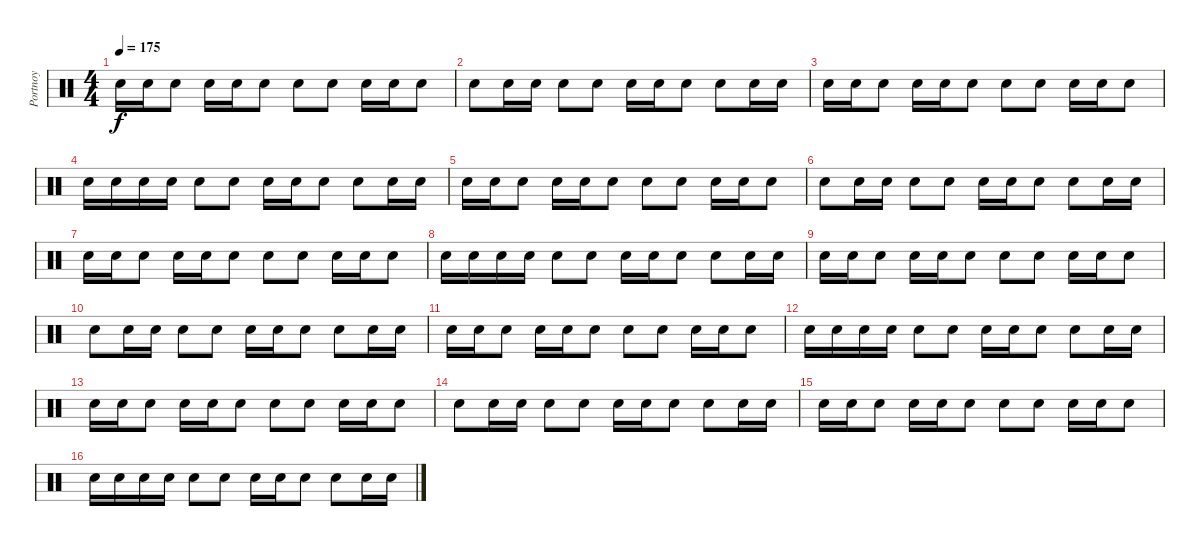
\track ("Portnoy" "Portnoy") {instrument percussion}
\staff {score}
\articulation defaults
\ts (4 4)
\tempo 175
\clef neutral
\ks c "Electric Snare (hit)".16{dy f} "Electric Snare (hit)".16 "Electric Snare (hit)".8 "Electric Snare (hit)".16 "Electric Snare (hit)".16 "Electric Snare (hit)".8 "Electric Snare (hit)".8 "Electric Snare (hit)".8 "Electric Snare (hit)".16 "Electric Snare (hit)".16 "Electric Snare (hit)".8
|
"Electric Snare (hit)".8 "Electric Snare (hit)".16 "Electric Snare (hit)".16 "Electric Snare (hit)".8 "Electric Snare (hit)".8 "Electric Snare (hit)".16 "Electric Snare (hit)".16 "Electric Snare (hit)".8 "Electric Snare (hit)".8 "Electric Snare (hit)".16 "Electric Snare (hit)".16 |
"Electric Snare (hit)".16 "Electric Snare (hit)".16 "Electric Snare (hit)".8 "Electric Snare (hit)".16 "Electric Snare (hit)".16 "Electric Snare (hit)".8 "Electric Snare (hit)".8 "Electric Snare (hit)".8 "Electric Snare (hit)".16 "Electric Snare (hit)".16 "Electric Snare (hit)".8 |
"Electric Snare (hit)".16 "Electric Snare (hit)".16 "Electric Snare (hit)".16 "Electric Snare (hit)".16 "Electric Snare (hit)".8 "Electric Snare (hit)".8 "Electric Snare (hit)".16 "Electric Snare (hit)".16 "Electric Snare (hit)".8 "Electric Snare (hit)".8 "Electric Snare (hit)".16 "Electric Snare (hit)".16 |
"Electric Snare (hit)".16 "Electric Snare (hit)".16 "Electric Snare (hit)".8 "Electric Snare (hit)".16 "Electric Snare (hit)".16 "Electric Snare (hit)".8 "Electric Snare (hit)".8 "Electric Snare (hit)".8 "Electric Snare (hit)".16 "Electric Snare (hit)".16 "Electric Snare (hit)".8 |
"Electric Snare (hit)".8 "Electric Snare (hit)".16 "Electric Snare (hit)".16 "Electric Snare (hit)".8 "Electric Snare (hit)".8 "Electric Snare (hit)".16 "Electric Snare (hit)".16 "Electric Snare (hit)".8 "Electric Snare (hit)".8 "Electric Snare (hit)".16 "Electric Snare (hit)".16 |
"Electric Snare (hit)".16 "Electric Snare (hit)".16 "Electric Snare (hit)".8 "Electric Snare (hit)".16 "Electric Snare (hit)".16 "Electric Snare (hit)".8 "Electric Snare (hit)".8 "Electric Snare (hit)".8 "Electric Snare (hit)".16 "Electric Snare (hit)".16 "Electric Snare (hit)".8 |
"Electric Snare (hit)".16 "Electric Snare (hit)".16 "Electric Snare (hit)".16 "Electric Snare (hit)".16 "Electric Snare (hit)".8 "Electric Snare (hit)".8 "Electric Snare (hit)".16 "Electric Snare (hit)".16 "Electric Snare (hit)".8 "Electric Snare (hit)".8 "Electric Snare (hit)".16 "Electric Snare (hit)".16 |
"Electric Snare (hit)".16 "Electric Snare (hit)".16 "Electric Snare (hit)".8 "Electric Snare (hit)".16 "Electric Snare (hit)".16 "Electric Snare (hit)".8 "Electric Snare (hit)".8 "Electric Snare (hit)".8 "Electric Snare (hit)".16 "Electric Snare (hit)".16 "Electric Snare (hit)".8 |
"Electric Snare (hit)".8 "Electric Snare (hit)".16 "Electric Snare (hit)".16 "Electric Snare (hit)".8 "Electric Snare (hit)".8 "Electric Snare (hit)".16 "Electric Snare (hit)".16 "Electric Snare (hit)".8 "Electric Snare (hit)".8 "Electric Snare (hit)".16 "Electric Snare (hit)".16 |
"Electric Snare (hit)".16 "Electric Snare (hit)".16 "Electric Snare (hit)".8 "Electric Snare (hit)".16 "Electric Snare (hit)".16 "Electric Snare (hit)".8 "Electric Snare (hit)".8 "Electric Snare (hit)".8 "Electric Snare (hit)".16 "Electric Snare (hit)".16 "Electric Snare (hit)".8 |
"Electric Snare (hit)".16 "Electric Snare (hit)".16 "Electric Snare (hit)".16 "Electric Snare (hit)".16 "Electric Snare (hit)".8 "Electric Snare (hit)".8 "Electric Snare (hit)".16 "Electric Snare (hit)".16 "Electric Snare (hit)".8 "Electric Snare (hit)".8 "Electric Snare (hit)".16 "Electric Snare (hit)".16 |
"Electric Snare (hit)".16 "Electric Snare (hit)".16 "Electric Snare (hit)".8 "Electric Snare (hit)".16 "Electric Snare (hit)".16 "Electric Snare (hit)".8 "Electric Snare (hit)".8 "Electric Snare (hit)".8 "Electric Snare (hit)".16 "Electric Snare (hit)".16 "Electric Snare (hit)".8 |
"Electric Snare (hit)".8 "Electric Snare (hit)".16 "Electric Snare (hit)".16 "Electric Snare (hit)".8 "Electric Snare (hit)".8 "Electric Snare (hit)".16 "Electric Snare (hit)".16 "Electric Snare (hit)".8 "Electric Snare (hit)".8 "Electric Snare (hit)".16 "Electric Snare (hit)".16 |
"Electric Snare (hit)".16 "Electric Snare (hit)".16 "Electric Snare (hit)".8 "Electric Snare (hit)".16 "Electric Snare (hit)".16 "Electric Snare (hit)".8 "Electric Snare (hit)".8 "Electric Snare (hit)".8 "Electric Snare (hit)".16 "Electric Snare (hit)".16 "Electric Snare (hit)".8 |
"Electric Snare (hit)".16 "Electric Snare (hit)".16 "Electric Snare (hit)".16 "Electric Snare (hit)".16 "Electric Snare (hit)".8 "Electric Snare (hit)".8 "Electric Snare (hit)".16 "Electric Snare (hit)".16 "Electric Snare (hit)".8 "Electric Snare (hit)".8 "Electric Snare (hit)".16 "Electric Snare (hit)".16
